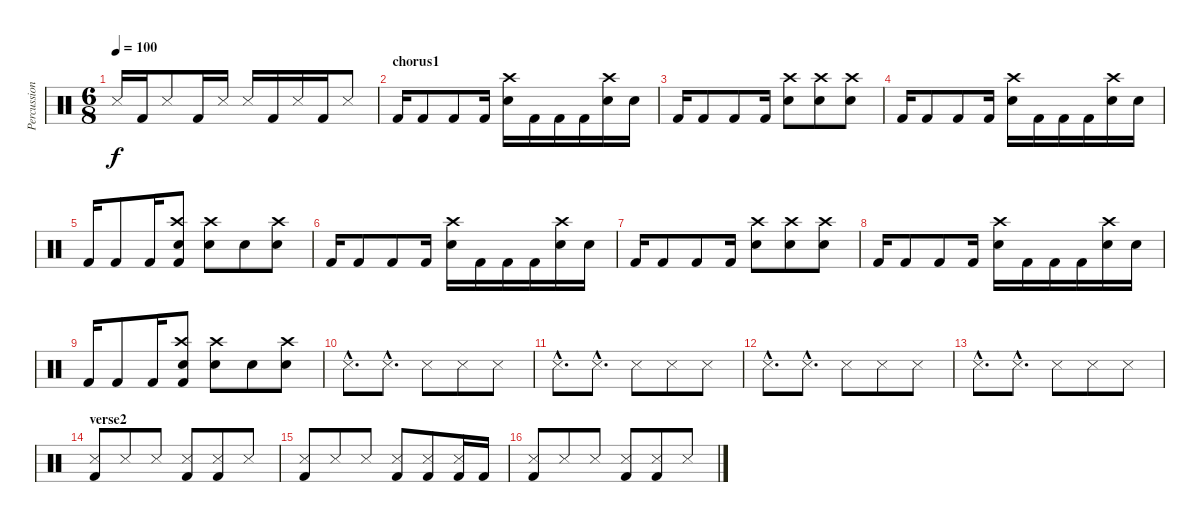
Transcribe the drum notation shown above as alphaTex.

\track ("Percussion" "Percussion") {instrument percussion}
\staff {score}
\articulation defaults
\ts (6 8)
\tempo 100
\clef neutral
\ks c "Snare (side stick) 3".16{dy f} "Kick (hit) 2".16 "Snare (side stick) 3".8 "Kick (hit) 2".16 "Snare (side stick) 3".16 "Snare (side stick) 3".16 "Kick (hit) 2".16 "Snare (side stick) 3".16 "Kick (hit) 2".16 "Snare (side stick) 3".8
|
\section ("" "chorus1")
"Kick (hit) 2".16 "Kick (hit) 2".8 "Kick (hit) 2".8 "Kick (hit) 2".16 ("Crash high (hit)" "Snare (hit) 2").16 "Kick (hit) 2".16 "Kick (hit) 2".16 "Kick (hit) 2".16 ("Crash high (hit)" "Snare (hit) 2").16 "Snare (hit) 2".16 |
"Kick (hit) 2".16 "Kick (hit) 2".8 "Kick (hit) 2".8 "Kick (hit) 2".16 ("Crash high (hit)" "Snare (hit) 2").8 ("Crash high (hit)" "Snare (hit) 2").8 ("Crash high (hit)" "Snare (hit) 2").8 |
"Kick (hit) 2".16 "Kick (hit) 2".8 "Kick (hit) 2".8 "Kick (hit) 2".16 ("Crash high (hit)" "Snare (hit) 2").16 "Kick (hit) 2".16 "Kick (hit) 2".16 "Kick (hit) 2".16 ("Crash high (hit)" "Snare (hit) 2").16 "Snare (hit) 2".16 |
"Kick (hit) 2".16 "Kick (hit) 2".8 "Kick (hit) 2".16 ("Crash high (hit)" "Snare (hit) 2" "Kick (hit) 2").8 ("Crash high (hit)" "Snare (hit) 2").8 "Snare (hit) 2".8 ("Crash high (hit)" "Snare (hit) 2").8 |
"Kick (hit) 2".16 "Kick (hit) 2".8 "Kick (hit) 2".8 "Kick (hit) 2".16 ("Crash high (hit)" "Snare (hit) 2").16 "Kick (hit) 2".16 "Kick (hit) 2".16 "Kick (hit) 2".16 ("Crash high (hit)" "Snare (hit) 2").16 "Snare (hit) 2".16 |
"Kick (hit) 2".16 "Kick (hit) 2".8 "Kick (hit) 2".8 "Kick (hit) 2".16 ("Crash high (hit)" "Snare (hit) 2").8 ("Crash high (hit)" "Snare (hit) 2").8 ("Crash high (hit)" "Snare (hit) 2").8 |
"Kick (hit) 2".16 "Kick (hit) 2".8 "Kick (hit) 2".8 "Kick (hit) 2".16 ("Crash high (hit)" "Snare (hit) 2").16 "Kick (hit) 2".16 "Kick (hit) 2".16 "Kick (hit) 2".16 ("Crash high (hit)" "Snare (hit) 2").16 "Snare (hit) 2".16 |
"Kick (hit) 2".16 "Kick (hit) 2".8 "Kick (hit) 2".16 ("Crash high (hit)" "Snare (hit) 2" "Kick (hit) 2").8 ("Crash high (hit)" "Snare (hit) 2").8 "Snare (hit) 2".8 ("Crash high (hit)" "Snare (hit) 2").8 |
"Snare (side stick) 3"{hac}.8{d} "Snare (side stick) 3"{hac}.8{d} "Snare (side stick) 3".8 "Snare (side stick) 3".8 "Snare (side stick) 3".8 |
"Snare (side stick) 3"{hac}.8{d} "Snare (side stick) 3"{hac}.8{d} "Snare (side stick) 3".8 "Snare (side stick) 3".8 "Snare (side stick) 3".8 |
"Snare (side stick) 3"{hac}.8{d} "Snare (side stick) 3"{hac}.8{d} "Snare (side stick) 3".8 "Snare (side stick) 3".8 "Snare (side stick) 3".8 |
"Snare (side stick) 3"{hac}.8{d} "Snare (side stick) 3"{hac}.8{d} "Snare (side stick) 3".8 "Snare (side stick) 3".8 "Snare (side stick) 3".8 |
\section ("" "verse2")
("Snare (side stick) 3" "Kick (hit) 2").8 "Snare (side stick) 3".8 "Snare (side stick) 3".8 ("Snare (side stick) 3" "Kick (hit) 2").8 ("Snare (side stick) 3" "Kick (hit) 2").8 "Snare (side stick) 3".8 |
("Snare (side stick) 3" "Kick (hit) 2").8 "Snare (side stick) 3".8 "Snare (side stick) 3".8 ("Snare (side stick) 3" "Kick (hit) 2").8 ("Snare (side stick) 3" "Kick (hit) 2").8 ("Snare (side stick) 3" "Kick (hit) 2").16 "Kick (hit) 2".16 |
("Snare (side stick) 3" "Kick (hit) 2").8 "Snare (side stick) 3".8 "Snare (side stick) 3".8 ("Snare (side stick) 3" "Kick (hit) 2").8 ("Snare (side stick) 3" "Kick (hit) 2").8 "Snare (side stick) 3".8
